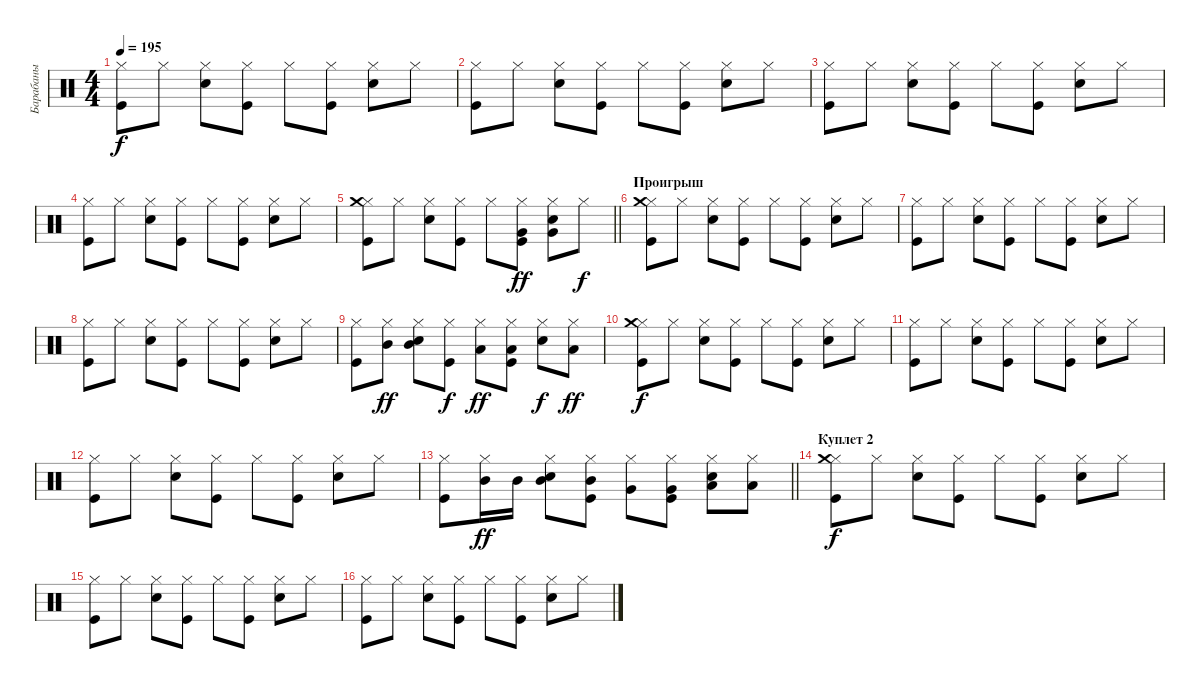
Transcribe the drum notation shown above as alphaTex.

\track ("Барабаны" "Барабаны") {instrument percussion}
\staff {score}
\articulation defaults
\ts (4 4)
\tempo 195
\clef neutral
\ks c
("Kick (hit)" "Hi-Hat (closed)").8{dy f} "Hi-Hat (closed)".8 ("Snare (hit) 2" "Hi-Hat (closed)").8 ("Kick (hit)" "Hi-Hat (closed)").8 "Hi-Hat (closed)".8 ("Kick (hit)" "Hi-Hat (closed)").8 ("Snare (hit) 2" "Hi-Hat (closed)").8 "Hi-Hat (closed)".8 |
("Kick (hit)" "Hi-Hat (closed)").8 "Hi-Hat (closed)".8 ("Snare (hit) 2" "Hi-Hat (closed)").8 ("Kick (hit)" "Hi-Hat (closed)").8 "Hi-Hat (closed)".8 ("Kick (hit)" "Hi-Hat (closed)").8 ("Snare (hit) 2" "Hi-Hat (closed)").8 "Hi-Hat (closed)".8 |
("Kick (hit)" "Hi-Hat (closed)").8 "Hi-Hat (closed)".8 ("Snare (hit) 2" "Hi-Hat (closed)").8 ("Kick (hit)" "Hi-Hat (closed)").8 "Hi-Hat (closed)".8 ("Kick (hit)" "Hi-Hat (closed)").8 ("Snare (hit) 2" "Hi-Hat (closed)").8 "Hi-Hat (closed)".8 |
("Kick (hit)" "Hi-Hat (closed)").8 "Hi-Hat (closed)".8 ("Snare (hit) 2" "Hi-Hat (closed)").8 ("Kick (hit)" "Hi-Hat (closed)").8 "Hi-Hat (closed)".8 ("Kick (hit)" "Hi-Hat (closed)").8 ("Snare (hit) 2" "Hi-Hat (closed)").8 "Hi-Hat (closed)".8 |
\barLineRight lightlight
("Kick (hit)" "Hi-Hat (closed)" "Crash medium (hit)").8 "Hi-Hat (closed)".8 ("Snare (hit) 2" "Hi-Hat (closed)").8 ("Kick (hit)" "Hi-Hat (closed)").8 "Hi-Hat (closed)".8 ("Kick (hit)" "Hi-Hat (closed)" "Very Low Tom (hit)").8{dy ff} ("Snare (hit) 2" "Hi-Hat (closed)" "Very Low Tom (hit)").8 "Hi-Hat (closed)".8{dy f} |
\section ("" "Проигрыш")
("Kick (hit)" "Hi-Hat (closed)" "Crash medium (hit)").8 "Hi-Hat (closed)".8 ("Snare (hit) 2" "Hi-Hat (closed)").8 ("Kick (hit)" "Hi-Hat (closed)").8 "Hi-Hat (closed)".8 ("Kick (hit)" "Hi-Hat (closed)").8 ("Snare (hit) 2" "Hi-Hat (closed)").8 "Hi-Hat (closed)".8 |
("Kick (hit)" "Hi-Hat (closed)").8 "Hi-Hat (closed)".8 ("Snare (hit) 2" "Hi-Hat (closed)").8 ("Kick (hit)" "Hi-Hat (closed)").8 "Hi-Hat (closed)".8 ("Kick (hit)" "Hi-Hat (closed)").8 ("Snare (hit) 2" "Hi-Hat (closed)").8 "Hi-Hat (closed)".8 |
("Kick (hit)" "Hi-Hat (closed)").8 "Hi-Hat (closed)".8 ("Snare (hit) 2" "Hi-Hat (closed)").8 ("Kick (hit)" "Hi-Hat (closed)").8 "Hi-Hat (closed)".8 ("Kick (hit)" "Hi-Hat (closed)").8 ("Snare (hit) 2" "Hi-Hat (closed)").8 "Hi-Hat (closed)".8 |
("Kick (hit)" "Hi-Hat (closed)").8 ("Hi-Hat (closed)" "Mid Tom (hit)").8{dy ff} ("Snare (hit) 2" "Hi-Hat (closed)" "Mid Tom (hit)").8 ("Kick (hit)" "Hi-Hat (closed)").8{dy f} ("Hi-Hat (closed)" "Low Tom (hit)").8{dy ff} ("Kick (hit)" "Hi-Hat (closed)" "Low Tom (hit)").8 ("Snare (hit) 2" "Hi-Hat (closed)").8{dy f} ("Hi-Hat (closed)" "Low Tom (hit)").8{dy ff} |
("Kick (hit)" "Hi-Hat (closed)" "Crash medium (hit)").8{dy f} "Hi-Hat (closed)".8 ("Snare (hit) 2" "Hi-Hat (closed)").8 ("Kick (hit)" "Hi-Hat (closed)").8 "Hi-Hat (closed)".8 ("Kick (hit)" "Hi-Hat (closed)").8 ("Snare (hit) 2" "Hi-Hat (closed)").8 "Hi-Hat (closed)".8 |
("Kick (hit)" "Hi-Hat (closed)").8 "Hi-Hat (closed)".8 ("Snare (hit) 2" "Hi-Hat (closed)").8 ("Kick (hit)" "Hi-Hat (closed)").8 "Hi-Hat (closed)".8 ("Kick (hit)" "Hi-Hat (closed)").8 ("Snare (hit) 2" "Hi-Hat (closed)").8 "Hi-Hat (closed)".8 |
("Kick (hit)" "Hi-Hat (closed)").8 "Hi-Hat (closed)".8 ("Snare (hit) 2" "Hi-Hat (closed)").8 ("Kick (hit)" "Hi-Hat (closed)").8 "Hi-Hat (closed)".8 ("Kick (hit)" "Hi-Hat (closed)").8 ("Snare (hit) 2" "Hi-Hat (closed)").8 "Hi-Hat (closed)".8 |
\barLineRight lightlight
("Kick (hit)" "Hi-Hat (closed)").8 ("Hi-Hat (closed)" "Mid Tom (hit)").16{dy ff} "Mid Tom (hit)".16 ("Snare (hit) 2" "Hi-Hat (closed)" "Mid Tom (hit)").8 ("Kick (hit)" "Hi-Hat (closed)" "Mid Tom (hit)").8 ("Hi-Hat (closed)" "Very Low Tom (hit)").8 ("Kick (hit)" "Hi-Hat (closed)" "Very Low Tom (hit)").8 ("Snare (hit) 2" "Hi-Hat (closed)" "Low Tom (hit)").8 ("Hi-Hat (closed)" "Low Tom (hit)").8 |
\section ("" "Куплет 2")
("Kick (hit)" "Hi-Hat (closed)" "Crash medium (hit)").8{dy f} "Hi-Hat (closed)".8 ("Snare (hit) 2" "Hi-Hat (closed)").8 ("Kick (hit)" "Hi-Hat (closed)").8 "Hi-Hat (closed)".8 ("Kick (hit)" "Hi-Hat (closed)").8 ("Snare (hit) 2" "Hi-Hat (closed)").8 "Hi-Hat (closed)".8 |
("Kick (hit)" "Hi-Hat (closed)").8 "Hi-Hat (closed)".8 ("Snare (hit) 2" "Hi-Hat (closed)").8 ("Kick (hit)" "Hi-Hat (closed)").8 "Hi-Hat (closed)".8 ("Kick (hit)" "Hi-Hat (closed)").8 ("Snare (hit) 2" "Hi-Hat (closed)").8 "Hi-Hat (closed)".8 |
("Kick (hit)" "Hi-Hat (closed)").8 "Hi-Hat (closed)".8 ("Snare (hit) 2" "Hi-Hat (closed)").8 ("Kick (hit)" "Hi-Hat (closed)").8 "Hi-Hat (closed)".8 ("Kick (hit)" "Hi-Hat (closed)").8 ("Snare (hit) 2" "Hi-Hat (closed)").8 "Hi-Hat (closed)".8
